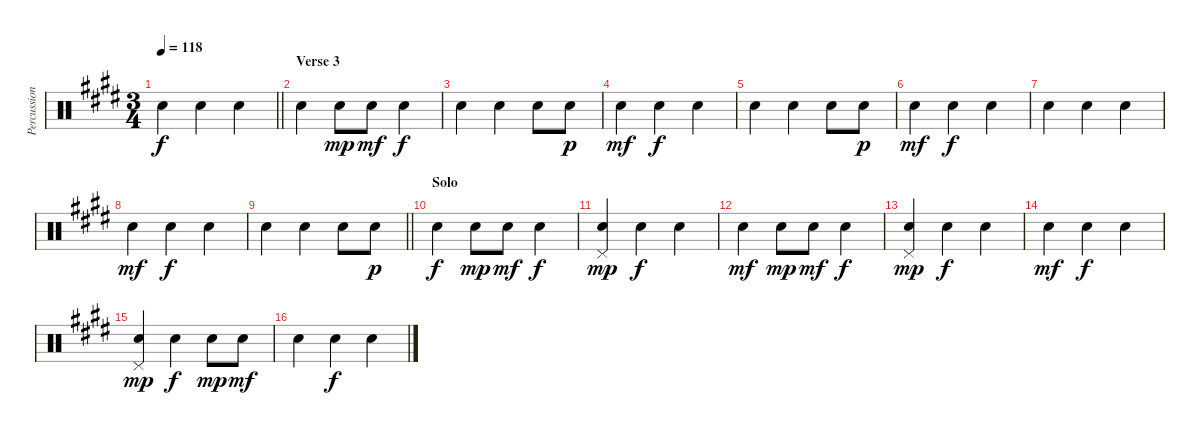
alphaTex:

\track ("Percussion" "Percussion") {instrument percussion}
\staff {score}
\articulation defaults
\ts (3 4)
\tempo 118
\clef neutral
\barLineRight lightlight
\ks e "Hand Clap (hit)".4{dy f} "Snare (hit) 2".4 "Snare (hit) 2".4
|
\section ("" "Verse 3")
"Snare (hit) 2".4 "Snare (hit) 2".8{dy mp} "Snare (hit) 2".8{dy mf} "Snare (hit) 2".4{dy f} |
"Hand Clap (hit)".4 "Snare (hit) 2".4 "Snare (hit) 2".8 "Snare (hit) 2".8{dy p} |
"Snare (hit) 2".4{dy mf} "Snare (hit) 2".4{dy f} "Snare (hit) 2".4 |
"Hand Clap (hit)".4 "Snare (hit) 2".4 "Snare (hit) 2".8 "Snare (hit) 2".8{dy p} |
"Snare (hit) 2".4{dy mf} "Snare (hit) 2".4{dy f} "Snare (hit) 2".4 |
"Hand Clap (hit)".4 "Snare (hit) 2".4 "Snare (hit) 2".4 |
"Snare (hit) 2".4{dy mf} "Snare (hit) 2".4{dy f} "Snare (hit) 2".4 |
\barLineRight lightlight "Hand Clap (hit)".4 "Snare (hit) 2".4 "Snare (hit) 2".8 "Snare (hit) 2".8{dy p}
|
\section ("" "Solo")
"Snare (hit) 2".4{dy f} "Snare (hit) 2".8{dy mp} "Snare (hit) 2".8{dy mf} "Snare (hit) 2".4{dy f} |
("Hand Clap (hit)" "Pedal Hi-Hat (hit)").4{dy mp} "Snare (hit) 2".4{dy f} "Snare (hit) 2".4 |
"Snare (hit) 2".4{dy mf} "Snare (hit) 2".8{dy mp} "Snare (hit) 2".8{dy mf} "Snare (hit) 2".4{dy f} |
("Hand Clap (hit)" "Pedal Hi-Hat (hit)").4{dy mp} "Snare (hit) 2".4{dy f} "Snare (hit) 2".4 |
"Snare (hit) 2".4{dy mf} "Snare (hit) 2".4{dy f} "Snare (hit) 2".4 |
("Hand Clap (hit)" "Pedal Hi-Hat (hit)").4{dy mp} "Snare (hit) 2".4{dy f} "Snare (hit) 2".8{dy mp} "Snare (hit) 2".8{dy mf} |
"Snare (hit) 2".4 "Snare (hit) 2".4{dy f} "Snare (hit) 2".4
